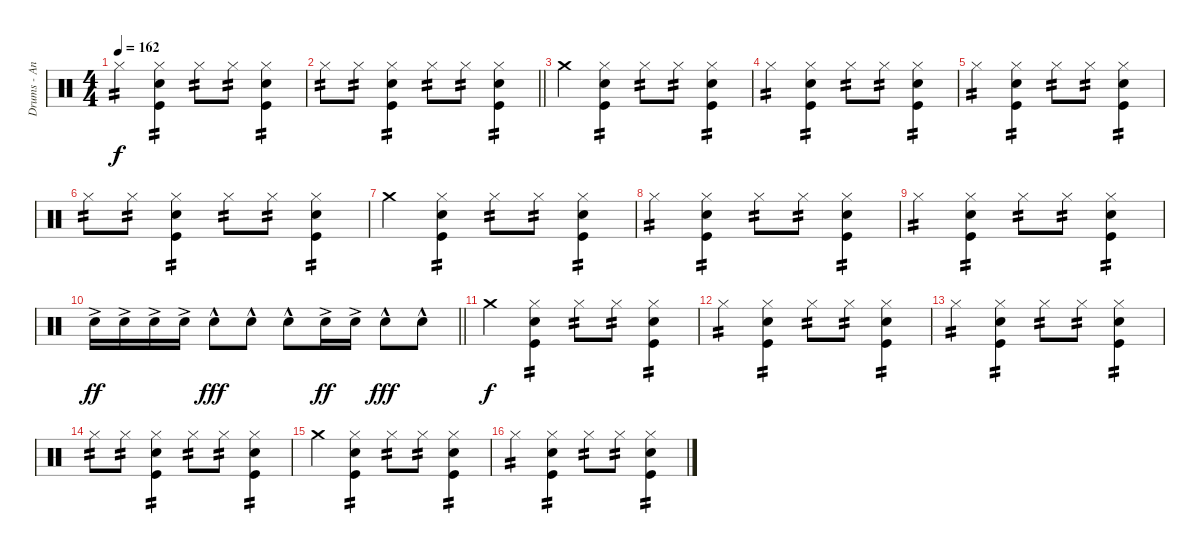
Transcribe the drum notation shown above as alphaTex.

\track ("Drums - Andriushkin" "Drums - An") {instrument percussion}
\staff {score}
\articulation defaults
\ts (4 4)
\tempo 162
\clef neutral
\ks c "Hi-Hat (closed)".4{tp 2 dy f}
("Hi-Hat (closed)" "Electric Snare (hit)" "Kick (hit)").4{tp 2} "Hi-Hat (closed)".8{tp 2} "Hi-Hat (closed)".8{tp 2} ("Hi-Hat (closed)" "Electric Snare (hit)" "Kick (hit)").4{tp 2} |
\barLineRight lightlight "Hi-Hat (closed)".8{tp 2} "Hi-Hat (closed)".8{tp 2}
("Hi-Hat (closed)" "Electric Snare (hit)" "Kick (hit)").4{tp 2} "Hi-Hat (closed)".8{tp 2} "Hi-Hat (closed)".8{tp 2} ("Hi-Hat (closed)" "Electric Snare (hit)" "Kick (hit)").4{tp 2} |
"Crash medium (hit)".4 ("Hi-Hat (closed)" "Electric Snare (hit)" "Kick (hit)").4{tp 2} "Hi-Hat (closed)".8{tp 2} "Hi-Hat (closed)".8{tp 2} ("Hi-Hat (closed)" "Electric Snare (hit)" "Kick (hit)").4{tp 2} |
"Hi-Hat (closed)".4{tp 2} ("Hi-Hat (closed)" "Electric Snare (hit)" "Kick (hit)").4{tp 2} "Hi-Hat (closed)".8{tp 2} "Hi-Hat (closed)".8{tp 2} ("Hi-Hat (closed)" "Electric Snare (hit)" "Kick (hit)").4{tp 2} |
"Hi-Hat (closed)".4{tp 2} ("Hi-Hat (closed)" "Electric Snare (hit)" "Kick (hit)").4{tp 2} "Hi-Hat (closed)".8{tp 2} "Hi-Hat (closed)".8{tp 2} ("Hi-Hat (closed)" "Electric Snare (hit)" "Kick (hit)").4{tp 2} |
"Hi-Hat (closed)".8{tp 2} "Hi-Hat (closed)".8{tp 2} ("Hi-Hat (closed)" "Electric Snare (hit)" "Kick (hit)").4{tp 2} "Hi-Hat (closed)".8{tp 2} "Hi-Hat (closed)".8{tp 2} ("Hi-Hat (closed)" "Electric Snare (hit)" "Kick (hit)").4{tp 2} |
"Crash medium (hit)".4 ("Hi-Hat (closed)" "Electric Snare (hit)" "Kick (hit)").4{tp 2} "Hi-Hat (closed)".8{tp 2} "Hi-Hat (closed)".8{tp 2} ("Hi-Hat (closed)" "Electric Snare (hit)" "Kick (hit)").4{tp 2} |
"Hi-Hat (closed)".4{tp 2} ("Hi-Hat (closed)" "Electric Snare (hit)" "Kick (hit)").4{tp 2} "Hi-Hat (closed)".8{tp 2} "Hi-Hat (closed)".8{tp 2} ("Hi-Hat (closed)" "Electric Snare (hit)" "Kick (hit)").4{tp 2} |
"Hi-Hat (closed)".4{tp 2} ("Hi-Hat (closed)" "Electric Snare (hit)" "Kick (hit)").4{tp 2} "Hi-Hat (closed)".8{tp 2} "Hi-Hat (closed)".8{tp 2} ("Hi-Hat (closed)" "Electric Snare (hit)" "Kick (hit)").4{tp 2} |
\barLineRight lightlight "Electric Snare (hit)"{ac}.16{dy ff} "Electric Snare (hit)"{ac}.16 "Electric Snare (hit)"{ac}.16 "Electric Snare (hit)"{ac}.16 "Electric Snare (hit)"{hac}.8{dy fff} "Electric Snare (hit)"{hac}.8 "Electric Snare (hit)"{hac}.8 "Electric Snare (hit)"{ac}.16{dy ff} "Electric Snare (hit)"{ac}.16 "Electric Snare (hit)"{hac}.8{dy fff} "Electric Snare (hit)"{hac}.8
|
"Crash medium (hit)".4{dy f} ("Hi-Hat (closed)" "Electric Snare (hit)" "Kick (hit)").4{tp 2} "Hi-Hat (closed)".8{tp 2} "Hi-Hat (closed)".8{tp 2} ("Hi-Hat (closed)" "Electric Snare (hit)" "Kick (hit)").4{tp 2} |
"Hi-Hat (closed)".4{tp 2} ("Hi-Hat (closed)" "Electric Snare (hit)" "Kick (hit)").4{tp 2} "Hi-Hat (closed)".8{tp 2} "Hi-Hat (closed)".8{tp 2} ("Hi-Hat (closed)" "Electric Snare (hit)" "Kick (hit)").4{tp 2} |
"Hi-Hat (closed)".4{tp 2} ("Hi-Hat (closed)" "Electric Snare (hit)" "Kick (hit)").4{tp 2} "Hi-Hat (closed)".8{tp 2} "Hi-Hat (closed)".8{tp 2} ("Hi-Hat (closed)" "Electric Snare (hit)" "Kick (hit)").4{tp 2} |
"Hi-Hat (closed)".8{tp 2} "Hi-Hat (closed)".8{tp 2} ("Hi-Hat (closed)" "Electric Snare (hit)" "Kick (hit)").4{tp 2} "Hi-Hat (closed)".8{tp 2} "Hi-Hat (closed)".8{tp 2} ("Hi-Hat (closed)" "Electric Snare (hit)" "Kick (hit)").4{tp 2} |
"Crash medium (hit)".4 ("Hi-Hat (closed)" "Electric Snare (hit)" "Kick (hit)").4{tp 2} "Hi-Hat (closed)".8{tp 2} "Hi-Hat (closed)".8{tp 2} ("Hi-Hat (closed)" "Electric Snare (hit)" "Kick (hit)").4{tp 2} |
"Hi-Hat (closed)".4{tp 2} ("Hi-Hat (closed)" "Electric Snare (hit)" "Kick (hit)").4{tp 2} "Hi-Hat (closed)".8{tp 2} "Hi-Hat (closed)".8{tp 2} ("Hi-Hat (closed)" "Electric Snare (hit)" "Kick (hit)").4{tp 2}
